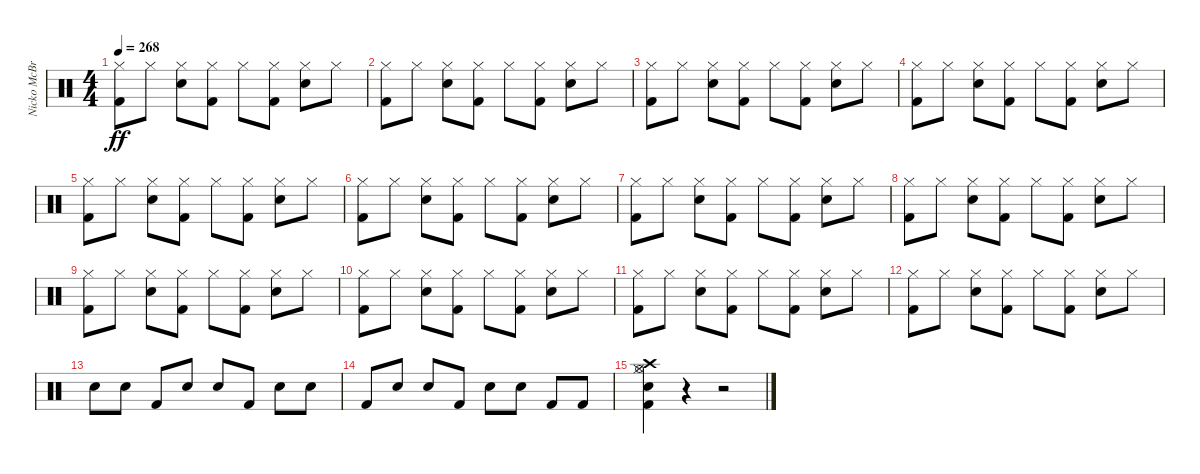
\track ("Nicko McBrain" "Nicko McBr") {instrument percussion}
\staff {score}
\articulation defaults
\ts (4 4)
\tempo 268
\clef neutral
\ks c
("Kick (hit) 2" "Hi-Hat (closed)").8{dy ff} "Hi-Hat (closed)".8 ("Snare (hit) 2" "Hi-Hat (closed)").8 ("Kick (hit) 2" "Hi-Hat (closed)").8 "Hi-Hat (closed)".8 ("Kick (hit) 2" "Hi-Hat (closed)").8 ("Snare (hit) 2" "Hi-Hat (closed)").8 "Hi-Hat (closed)".8 |
("Kick (hit) 2" "Hi-Hat (closed)").8 "Hi-Hat (closed)".8 ("Snare (hit) 2" "Hi-Hat (closed)").8 ("Kick (hit) 2" "Hi-Hat (closed)").8 "Hi-Hat (closed)".8 ("Kick (hit) 2" "Hi-Hat (closed)").8 ("Snare (hit) 2" "Hi-Hat (closed)").8 "Hi-Hat (closed)".8 |
("Kick (hit) 2" "Hi-Hat (closed)").8 "Hi-Hat (closed)".8 ("Snare (hit) 2" "Hi-Hat (closed)").8 ("Kick (hit) 2" "Hi-Hat (closed)").8 "Hi-Hat (closed)".8 ("Kick (hit) 2" "Hi-Hat (closed)").8 ("Snare (hit) 2" "Hi-Hat (closed)").8 "Hi-Hat (closed)".8 |
("Kick (hit) 2" "Hi-Hat (closed)").8 "Hi-Hat (closed)".8 ("Snare (hit) 2" "Hi-Hat (closed)").8 ("Kick (hit) 2" "Hi-Hat (closed)").8 "Hi-Hat (closed)".8 ("Kick (hit) 2" "Hi-Hat (closed)").8 ("Snare (hit) 2" "Hi-Hat (closed)").8 "Hi-Hat (closed)".8 |
("Kick (hit) 2" "Hi-Hat (closed)").8 "Hi-Hat (closed)".8 ("Snare (hit) 2" "Hi-Hat (closed)").8 ("Kick (hit) 2" "Hi-Hat (closed)").8 "Hi-Hat (closed)".8 ("Kick (hit) 2" "Hi-Hat (closed)").8 ("Snare (hit) 2" "Hi-Hat (closed)").8 "Hi-Hat (closed)".8 |
("Kick (hit) 2" "Hi-Hat (closed)").8 "Hi-Hat (closed)".8 ("Snare (hit) 2" "Hi-Hat (closed)").8 ("Kick (hit) 2" "Hi-Hat (closed)").8 "Hi-Hat (closed)".8 ("Kick (hit) 2" "Hi-Hat (closed)").8 ("Snare (hit) 2" "Hi-Hat (closed)").8 "Hi-Hat (closed)".8 |
("Kick (hit) 2" "Hi-Hat (closed)").8 "Hi-Hat (closed)".8 ("Snare (hit) 2" "Hi-Hat (closed)").8 ("Kick (hit) 2" "Hi-Hat (closed)").8 "Hi-Hat (closed)".8 ("Kick (hit) 2" "Hi-Hat (closed)").8 ("Snare (hit) 2" "Hi-Hat (closed)").8 "Hi-Hat (closed)".8 |
("Kick (hit) 2" "Hi-Hat (closed)").8 "Hi-Hat (closed)".8 ("Snare (hit) 2" "Hi-Hat (closed)").8 ("Kick (hit) 2" "Hi-Hat (closed)").8 "Hi-Hat (closed)".8 ("Kick (hit) 2" "Hi-Hat (closed)").8 ("Snare (hit) 2" "Hi-Hat (closed)").8 "Hi-Hat (closed)".8 |
("Kick (hit) 2" "Hi-Hat (closed)").8 "Hi-Hat (closed)".8 ("Snare (hit) 2" "Hi-Hat (closed)").8 ("Kick (hit) 2" "Hi-Hat (closed)").8 "Hi-Hat (closed)".8 ("Kick (hit) 2" "Hi-Hat (closed)").8 ("Snare (hit) 2" "Hi-Hat (closed)").8 "Hi-Hat (closed)".8 |
("Kick (hit) 2" "Hi-Hat (closed)").8 "Hi-Hat (closed)".8 ("Snare (hit) 2" "Hi-Hat (closed)").8 ("Kick (hit) 2" "Hi-Hat (closed)").8 "Hi-Hat (closed)".8 ("Kick (hit) 2" "Hi-Hat (closed)").8 ("Snare (hit) 2" "Hi-Hat (closed)").8 "Hi-Hat (closed)".8 |
("Kick (hit) 2" "Hi-Hat (closed)").8 "Hi-Hat (closed)".8 ("Snare (hit) 2" "Hi-Hat (closed)").8 ("Kick (hit) 2" "Hi-Hat (closed)").8 "Hi-Hat (closed)".8 ("Kick (hit) 2" "Hi-Hat (closed)").8 ("Snare (hit) 2" "Hi-Hat (closed)").8 "Hi-Hat (closed)".8 |
("Kick (hit) 2" "Hi-Hat (closed)").8 "Hi-Hat (closed)".8 ("Snare (hit) 2" "Hi-Hat (closed)").8 ("Kick (hit) 2" "Hi-Hat (closed)").8 "Hi-Hat (closed)".8 ("Kick (hit) 2" "Hi-Hat (closed)").8 ("Snare (hit) 2" "Hi-Hat (closed)").8 "Hi-Hat (closed)".8 |
"Snare (hit) 2".8 "Snare (hit) 2".8 "Kick (hit) 2".8 "Snare (hit) 2".8 "Snare (hit) 2".8 "Kick (hit) 2".8 "Snare (hit) 2".8 "Snare (hit) 2".8 |
"Kick (hit) 2".8 "Snare (hit) 2".8 "Snare (hit) 2".8 "Kick (hit) 2".8 "Snare (hit) 2".8 "Snare (hit) 2".8 "Kick (hit) 2".8 "Kick (hit) 2".8 |
("Kick (hit) 2" "Snare (hit) 2" "Hi-Hat (closed)" "Hi-Hat (open)" "Crash high (hit)").4 r.4 r.2
